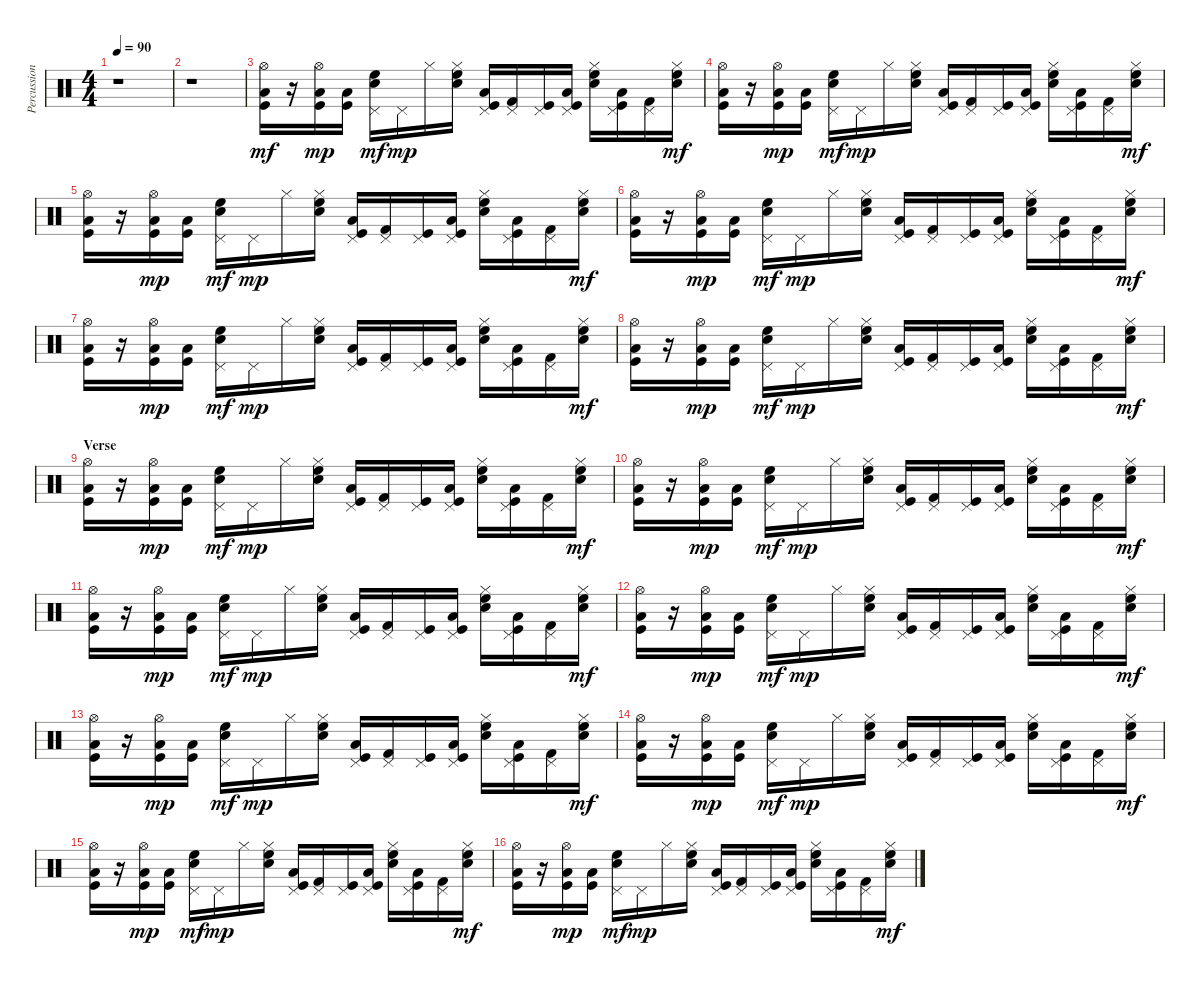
\track ("Percussion" "Percussion") {instrument percussion}
\staff {score}
\articulation defaults
\ts (4 4)
\tempo 90
\clef neutral
\ks c
r.1{dy mf} |
r.1 |
("Kick (hit)" "Low Tom (hit)" "Hi-Hat (open)").16 r.16 ("Kick (hit)" "Low Tom (hit)" "Hi-Hat (open)").16{dy mp} ("Kick (hit)" "Low Tom (hit)").16 ("Snare (hit) 2" "High Floor Tom (hit)" "Pedal Hi-Hat (hit)").16{dy mf} "Pedal Hi-Hat (hit)".16{dy mp} "Hi-Hat (closed)".16 ("Snare (hit) 2" "High Floor Tom (hit)" "Hi-Hat (closed)").16 ("Kick (hit)" "Low Tom (hit)" "Pedal Hi-Hat (hit)").16 ("Kick (hit) 2" "Pedal Hi-Hat (hit)").16 ("Kick (hit)" "Pedal Hi-Hat (hit)").16 ("Kick (hit)" "Low Tom (hit)" "Pedal Hi-Hat (hit)").16 ("Snare (hit) 2" "High Floor Tom (hit)" "Hi-Hat (closed)").16 ("Kick (hit)" "Low Tom (hit)" "Pedal Hi-Hat (hit)").16 ("Kick (hit) 2" "Pedal Hi-Hat (hit)").16 ("Snare (hit) 2" "High Floor Tom (hit)" "Hi-Hat (closed)").16{dy mf} |
("Kick (hit)" "Low Tom (hit)" "Hi-Hat (open)").16 r.16 ("Kick (hit)" "Low Tom (hit)" "Hi-Hat (open)").16{dy mp} ("Kick (hit)" "Low Tom (hit)").16 ("Snare (hit) 2" "High Floor Tom (hit)" "Pedal Hi-Hat (hit)").16{dy mf} "Pedal Hi-Hat (hit)".16{dy mp} "Hi-Hat (closed)".16 ("Snare (hit) 2" "High Floor Tom (hit)" "Hi-Hat (closed)").16 ("Kick (hit)" "Low Tom (hit)" "Pedal Hi-Hat (hit)").16 ("Kick (hit) 2" "Pedal Hi-Hat (hit)").16 ("Kick (hit)" "Pedal Hi-Hat (hit)").16 ("Kick (hit)" "Low Tom (hit)" "Pedal Hi-Hat (hit)").16 ("Snare (hit) 2" "High Floor Tom (hit)" "Hi-Hat (closed)").16 ("Kick (hit)" "Low Tom (hit)" "Pedal Hi-Hat (hit)").16 ("Kick (hit) 2" "Pedal Hi-Hat (hit)").16 ("Snare (hit) 2" "High Floor Tom (hit)" "Hi-Hat (closed)").16{dy mf} |
("Kick (hit)" "Low Tom (hit)" "Hi-Hat (open)").16 r.16 ("Kick (hit)" "Low Tom (hit)" "Hi-Hat (open)").16{dy mp} ("Kick (hit)" "Low Tom (hit)").16 ("Snare (hit) 2" "High Floor Tom (hit)" "Pedal Hi-Hat (hit)").16{dy mf} "Pedal Hi-Hat (hit)".16{dy mp} "Hi-Hat (closed)".16 ("Snare (hit) 2" "High Floor Tom (hit)" "Hi-Hat (closed)").16 ("Kick (hit)" "Low Tom (hit)" "Pedal Hi-Hat (hit)").16 ("Kick (hit) 2" "Pedal Hi-Hat (hit)").16 ("Kick (hit)" "Pedal Hi-Hat (hit)").16 ("Kick (hit)" "Low Tom (hit)" "Pedal Hi-Hat (hit)").16 ("Snare (hit) 2" "High Floor Tom (hit)" "Hi-Hat (closed)").16 ("Kick (hit)" "Low Tom (hit)" "Pedal Hi-Hat (hit)").16 ("Kick (hit) 2" "Pedal Hi-Hat (hit)").16 ("Snare (hit) 2" "High Floor Tom (hit)" "Hi-Hat (closed)").16{dy mf} |
("Kick (hit)" "Low Tom (hit)" "Hi-Hat (open)").16 r.16 ("Kick (hit)" "Low Tom (hit)" "Hi-Hat (open)").16{dy mp} ("Kick (hit)" "Low Tom (hit)").16 ("Snare (hit) 2" "High Floor Tom (hit)" "Pedal Hi-Hat (hit)").16{dy mf} "Pedal Hi-Hat (hit)".16{dy mp} "Hi-Hat (closed)".16 ("Snare (hit) 2" "High Floor Tom (hit)" "Hi-Hat (closed)").16 ("Kick (hit)" "Low Tom (hit)" "Pedal Hi-Hat (hit)").16 ("Kick (hit) 2" "Pedal Hi-Hat (hit)").16 ("Kick (hit)" "Pedal Hi-Hat (hit)").16 ("Kick (hit)" "Low Tom (hit)" "Pedal Hi-Hat (hit)").16 ("Snare (hit) 2" "High Floor Tom (hit)" "Hi-Hat (closed)").16 ("Kick (hit)" "Low Tom (hit)" "Pedal Hi-Hat (hit)").16 ("Kick (hit) 2" "Pedal Hi-Hat (hit)").16 ("Snare (hit) 2" "High Floor Tom (hit)" "Hi-Hat (closed)").16{dy mf} |
("Kick (hit)" "Low Tom (hit)" "Hi-Hat (open)").16 r.16 ("Kick (hit)" "Low Tom (hit)" "Hi-Hat (open)").16{dy mp} ("Kick (hit)" "Low Tom (hit)").16 ("Snare (hit) 2" "High Floor Tom (hit)" "Pedal Hi-Hat (hit)").16{dy mf} "Pedal Hi-Hat (hit)".16{dy mp} "Hi-Hat (closed)".16 ("Snare (hit) 2" "High Floor Tom (hit)" "Hi-Hat (closed)").16 ("Kick (hit)" "Low Tom (hit)" "Pedal Hi-Hat (hit)").16 ("Kick (hit) 2" "Pedal Hi-Hat (hit)").16 ("Kick (hit)" "Pedal Hi-Hat (hit)").16 ("Kick (hit)" "Low Tom (hit)" "Pedal Hi-Hat (hit)").16 ("Snare (hit) 2" "High Floor Tom (hit)" "Hi-Hat (closed)").16 ("Kick (hit)" "Low Tom (hit)" "Pedal Hi-Hat (hit)").16 ("Kick (hit) 2" "Pedal Hi-Hat (hit)").16 ("Snare (hit) 2" "High Floor Tom (hit)" "Hi-Hat (closed)").16{dy mf} |
("Kick (hit)" "Low Tom (hit)" "Hi-Hat (open)").16 r.16 ("Kick (hit)" "Low Tom (hit)" "Hi-Hat (open)").16{dy mp} ("Kick (hit)" "Low Tom (hit)").16 ("Snare (hit) 2" "High Floor Tom (hit)" "Pedal Hi-Hat (hit)").16{dy mf} "Pedal Hi-Hat (hit)".16{dy mp} "Hi-Hat (closed)".16 ("Snare (hit) 2" "High Floor Tom (hit)" "Hi-Hat (closed)").16 ("Kick (hit)" "Low Tom (hit)" "Pedal Hi-Hat (hit)").16 ("Kick (hit) 2" "Pedal Hi-Hat (hit)").16 ("Kick (hit)" "Pedal Hi-Hat (hit)").16 ("Kick (hit)" "Low Tom (hit)" "Pedal Hi-Hat (hit)").16 ("Snare (hit) 2" "High Floor Tom (hit)" "Hi-Hat (closed)").16 ("Kick (hit)" "Low Tom (hit)" "Pedal Hi-Hat (hit)").16 ("Kick (hit) 2" "Pedal Hi-Hat (hit)").16 ("Snare (hit) 2" "High Floor Tom (hit)" "Hi-Hat (closed)").16{dy mf} |
\section ("" "Verse")
("Kick (hit)" "Low Tom (hit)" "Hi-Hat (open)").16 r.16 ("Kick (hit)" "Low Tom (hit)" "Hi-Hat (open)").16{dy mp} ("Kick (hit)" "Low Tom (hit)").16 ("Snare (hit) 2" "High Floor Tom (hit)" "Pedal Hi-Hat (hit)").16{dy mf} "Pedal Hi-Hat (hit)".16{dy mp} "Hi-Hat (closed)".16 ("Snare (hit) 2" "High Floor Tom (hit)" "Hi-Hat (closed)").16 ("Kick (hit)" "Low Tom (hit)" "Pedal Hi-Hat (hit)").16 ("Kick (hit) 2" "Pedal Hi-Hat (hit)").16 ("Kick (hit)" "Pedal Hi-Hat (hit)").16 ("Kick (hit)" "Low Tom (hit)" "Pedal Hi-Hat (hit)").16 ("Snare (hit) 2" "High Floor Tom (hit)" "Hi-Hat (closed)").16 ("Kick (hit)" "Low Tom (hit)" "Pedal Hi-Hat (hit)").16 ("Kick (hit) 2" "Pedal Hi-Hat (hit)").16 ("Snare (hit) 2" "High Floor Tom (hit)" "Hi-Hat (closed)").16{dy mf} |
("Kick (hit)" "Low Tom (hit)" "Hi-Hat (open)").16 r.16 ("Kick (hit)" "Low Tom (hit)" "Hi-Hat (open)").16{dy mp} ("Kick (hit)" "Low Tom (hit)").16 ("Snare (hit) 2" "High Floor Tom (hit)" "Pedal Hi-Hat (hit)").16{dy mf} "Pedal Hi-Hat (hit)".16{dy mp} "Hi-Hat (closed)".16 ("Snare (hit) 2" "High Floor Tom (hit)" "Hi-Hat (closed)").16 ("Kick (hit)" "Low Tom (hit)" "Pedal Hi-Hat (hit)").16 ("Kick (hit) 2" "Pedal Hi-Hat (hit)").16 ("Kick (hit)" "Pedal Hi-Hat (hit)").16 ("Kick (hit)" "Low Tom (hit)" "Pedal Hi-Hat (hit)").16 ("Snare (hit) 2" "High Floor Tom (hit)" "Hi-Hat (closed)").16 ("Kick (hit)" "Low Tom (hit)" "Pedal Hi-Hat (hit)").16 ("Kick (hit) 2" "Pedal Hi-Hat (hit)").16 ("Snare (hit) 2" "High Floor Tom (hit)" "Hi-Hat (closed)").16{dy mf} |
("Kick (hit)" "Low Tom (hit)" "Hi-Hat (open)").16 r.16 ("Kick (hit)" "Low Tom (hit)" "Hi-Hat (open)").16{dy mp} ("Kick (hit)" "Low Tom (hit)").16 ("Snare (hit) 2" "High Floor Tom (hit)" "Pedal Hi-Hat (hit)").16{dy mf} "Pedal Hi-Hat (hit)".16{dy mp} "Hi-Hat (closed)".16 ("Snare (hit) 2" "High Floor Tom (hit)" "Hi-Hat (closed)").16 ("Kick (hit)" "Low Tom (hit)" "Pedal Hi-Hat (hit)").16 ("Kick (hit) 2" "Pedal Hi-Hat (hit)").16 ("Kick (hit)" "Pedal Hi-Hat (hit)").16 ("Kick (hit)" "Low Tom (hit)" "Pedal Hi-Hat (hit)").16 ("Snare (hit) 2" "High Floor Tom (hit)" "Hi-Hat (closed)").16 ("Kick (hit)" "Low Tom (hit)" "Pedal Hi-Hat (hit)").16 ("Kick (hit) 2" "Pedal Hi-Hat (hit)").16 ("Snare (hit) 2" "High Floor Tom (hit)" "Hi-Hat (closed)").16{dy mf} |
("Kick (hit)" "Low Tom (hit)" "Hi-Hat (open)").16 r.16 ("Kick (hit)" "Low Tom (hit)" "Hi-Hat (open)").16{dy mp} ("Kick (hit)" "Low Tom (hit)").16 ("Snare (hit) 2" "High Floor Tom (hit)" "Pedal Hi-Hat (hit)").16{dy mf} "Pedal Hi-Hat (hit)".16{dy mp} "Hi-Hat (closed)".16 ("Snare (hit) 2" "High Floor Tom (hit)" "Hi-Hat (closed)").16 ("Kick (hit)" "Low Tom (hit)" "Pedal Hi-Hat (hit)").16 ("Kick (hit) 2" "Pedal Hi-Hat (hit)").16 ("Kick (hit)" "Pedal Hi-Hat (hit)").16 ("Kick (hit)" "Low Tom (hit)" "Pedal Hi-Hat (hit)").16 ("Snare (hit) 2" "High Floor Tom (hit)" "Hi-Hat (closed)").16 ("Kick (hit)" "Low Tom (hit)" "Pedal Hi-Hat (hit)").16 ("Kick (hit) 2" "Pedal Hi-Hat (hit)").16 ("Snare (hit) 2" "High Floor Tom (hit)" "Hi-Hat (closed)").16{dy mf} |
("Kick (hit)" "Low Tom (hit)" "Hi-Hat (open)").16 r.16 ("Kick (hit)" "Low Tom (hit)" "Hi-Hat (open)").16{dy mp} ("Kick (hit)" "Low Tom (hit)").16 ("Snare (hit) 2" "High Floor Tom (hit)" "Pedal Hi-Hat (hit)").16{dy mf} "Pedal Hi-Hat (hit)".16{dy mp} "Hi-Hat (closed)".16 ("Snare (hit) 2" "High Floor Tom (hit)" "Hi-Hat (closed)").16 ("Kick (hit)" "Low Tom (hit)" "Pedal Hi-Hat (hit)").16 ("Kick (hit) 2" "Pedal Hi-Hat (hit)").16 ("Kick (hit)" "Pedal Hi-Hat (hit)").16 ("Kick (hit)" "Low Tom (hit)" "Pedal Hi-Hat (hit)").16 ("Snare (hit) 2" "High Floor Tom (hit)" "Hi-Hat (closed)").16 ("Kick (hit)" "Low Tom (hit)" "Pedal Hi-Hat (hit)").16 ("Kick (hit) 2" "Pedal Hi-Hat (hit)").16 ("Snare (hit) 2" "High Floor Tom (hit)" "Hi-Hat (closed)").16{dy mf} |
("Kick (hit)" "Low Tom (hit)" "Hi-Hat (open)").16 r.16 ("Kick (hit)" "Low Tom (hit)" "Hi-Hat (open)").16{dy mp} ("Kick (hit)" "Low Tom (hit)").16 ("Snare (hit) 2" "High Floor Tom (hit)" "Pedal Hi-Hat (hit)").16{dy mf} "Pedal Hi-Hat (hit)".16{dy mp} "Hi-Hat (closed)".16 ("Snare (hit) 2" "High Floor Tom (hit)" "Hi-Hat (closed)").16 ("Kick (hit)" "Low Tom (hit)" "Pedal Hi-Hat (hit)").16 ("Kick (hit) 2" "Pedal Hi-Hat (hit)").16 ("Kick (hit)" "Pedal Hi-Hat (hit)").16 ("Kick (hit)" "Low Tom (hit)" "Pedal Hi-Hat (hit)").16 ("Snare (hit) 2" "High Floor Tom (hit)" "Hi-Hat (closed)").16 ("Kick (hit)" "Low Tom (hit)" "Pedal Hi-Hat (hit)").16 ("Kick (hit) 2" "Pedal Hi-Hat (hit)").16 ("Snare (hit) 2" "High Floor Tom (hit)" "Hi-Hat (closed)").16{dy mf} |
("Kick (hit)" "Low Tom (hit)" "Hi-Hat (open)").16 r.16 ("Kick (hit)" "Low Tom (hit)" "Hi-Hat (open)").16{dy mp} ("Kick (hit)" "Low Tom (hit)").16 ("Snare (hit) 2" "High Floor Tom (hit)" "Pedal Hi-Hat (hit)").16{dy mf} "Pedal Hi-Hat (hit)".16{dy mp} "Hi-Hat (closed)".16 ("Snare (hit) 2" "High Floor Tom (hit)" "Hi-Hat (closed)").16 ("Kick (hit)" "Low Tom (hit)" "Pedal Hi-Hat (hit)").16 ("Kick (hit) 2" "Pedal Hi-Hat (hit)").16 ("Kick (hit)" "Pedal Hi-Hat (hit)").16 ("Kick (hit)" "Low Tom (hit)" "Pedal Hi-Hat (hit)").16 ("Snare (hit) 2" "High Floor Tom (hit)" "Hi-Hat (closed)").16 ("Kick (hit)" "Low Tom (hit)" "Pedal Hi-Hat (hit)").16 ("Kick (hit) 2" "Pedal Hi-Hat (hit)").16 ("Snare (hit) 2" "High Floor Tom (hit)" "Hi-Hat (closed)").16{dy mf} |
("Kick (hit)" "Low Tom (hit)" "Hi-Hat (open)").16 r.16 ("Kick (hit)" "Low Tom (hit)" "Hi-Hat (open)").16{dy mp} ("Kick (hit)" "Low Tom (hit)").16 ("Snare (hit) 2" "High Floor Tom (hit)" "Pedal Hi-Hat (hit)").16{dy mf} "Pedal Hi-Hat (hit)".16{dy mp} "Hi-Hat (closed)".16 ("Snare (hit) 2" "High Floor Tom (hit)" "Hi-Hat (closed)").16 ("Kick (hit)" "Low Tom (hit)" "Pedal Hi-Hat (hit)").16 ("Kick (hit) 2" "Pedal Hi-Hat (hit)").16 ("Kick (hit)" "Pedal Hi-Hat (hit)").16 ("Kick (hit)" "Low Tom (hit)" "Pedal Hi-Hat (hit)").16 ("Snare (hit) 2" "High Floor Tom (hit)" "Hi-Hat (closed)").16 ("Kick (hit)" "Low Tom (hit)" "Pedal Hi-Hat (hit)").16 ("Kick (hit) 2" "Pedal Hi-Hat (hit)").16 ("Snare (hit) 2" "High Floor Tom (hit)" "Hi-Hat (closed)").16{dy mf}
